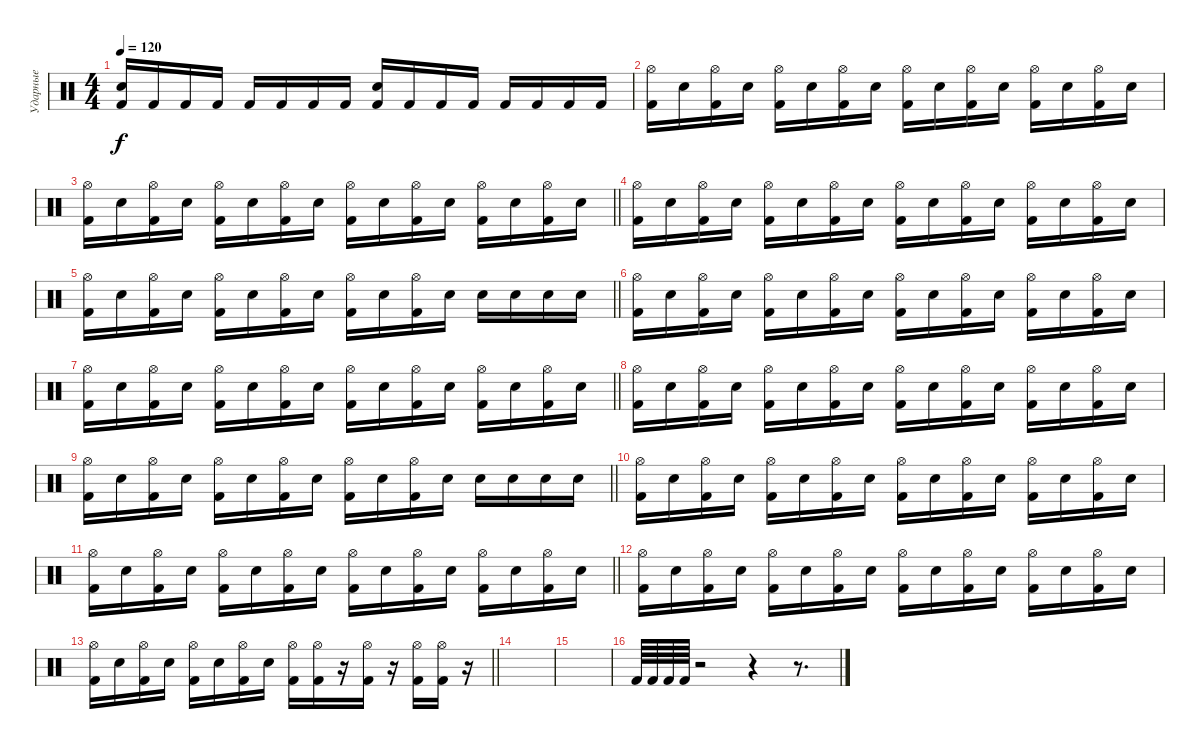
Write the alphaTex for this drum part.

\track ("Ударные" "Ударные") {instrument percussion}
\staff {score}
\articulation defaults
\ts (4 4)
\tempo 120
\clef neutral
\ks c
("Electric Snare (hit)" "Kick (hit) 2").16{dy f} "Kick (hit) 2".16 "Kick (hit) 2".16 "Kick (hit) 2".16 "Kick (hit) 2".16 "Kick (hit) 2".16 "Kick (hit) 2".16 "Kick (hit) 2".16 ("Electric Snare (hit)" "Kick (hit) 2").16 "Kick (hit) 2".16 "Kick (hit) 2".16 "Kick (hit) 2".16 "Kick (hit) 2".16 "Kick (hit) 2".16 "Kick (hit) 2".16 "Kick (hit) 2".16 |
("Hi-Hat (open)" "Kick (hit) 2").16 "Electric Snare (hit)".16 ("Hi-Hat (open)" "Kick (hit) 2").16 "Electric Snare (hit)".16 ("Hi-Hat (open)" "Kick (hit) 2").16 "Electric Snare (hit)".16 ("Hi-Hat (open)" "Kick (hit) 2").16 "Electric Snare (hit)".16 ("Hi-Hat (open)" "Kick (hit) 2").16 "Electric Snare (hit)".16 ("Hi-Hat (open)" "Kick (hit) 2").16 "Electric Snare (hit)".16 ("Hi-Hat (open)" "Kick (hit) 2").16 "Electric Snare (hit)".16 ("Hi-Hat (open)" "Kick (hit) 2").16 "Electric Snare (hit)".16 |
\barLineRight lightlight
("Hi-Hat (open)" "Kick (hit) 2").16 "Electric Snare (hit)".16 ("Hi-Hat (open)" "Kick (hit) 2").16 "Electric Snare (hit)".16 ("Hi-Hat (open)" "Kick (hit) 2").16 "Electric Snare (hit)".16 ("Hi-Hat (open)" "Kick (hit) 2").16 "Electric Snare (hit)".16 ("Hi-Hat (open)" "Kick (hit) 2").16 "Electric Snare (hit)".16 ("Hi-Hat (open)" "Kick (hit) 2").16 "Electric Snare (hit)".16 ("Hi-Hat (open)" "Kick (hit) 2").16 "Electric Snare (hit)".16 ("Hi-Hat (open)" "Kick (hit) 2").16 "Electric Snare (hit)".16 |
("Hi-Hat (open)" "Kick (hit) 2").16 "Electric Snare (hit)".16 ("Hi-Hat (open)" "Kick (hit) 2").16 "Electric Snare (hit)".16 ("Hi-Hat (open)" "Kick (hit) 2").16 "Electric Snare (hit)".16 ("Hi-Hat (open)" "Kick (hit) 2").16 "Electric Snare (hit)".16 ("Hi-Hat (open)" "Kick (hit) 2").16 "Electric Snare (hit)".16 ("Hi-Hat (open)" "Kick (hit) 2").16 "Electric Snare (hit)".16 ("Hi-Hat (open)" "Kick (hit) 2").16 "Electric Snare (hit)".16 ("Hi-Hat (open)" "Kick (hit) 2").16 "Electric Snare (hit)".16 |
\barLineRight lightlight
("Hi-Hat (open)" "Kick (hit) 2").16 "Electric Snare (hit)".16 ("Hi-Hat (open)" "Kick (hit) 2").16 "Electric Snare (hit)".16 ("Hi-Hat (open)" "Kick (hit) 2").16 "Electric Snare (hit)".16 ("Hi-Hat (open)" "Kick (hit) 2").16 "Electric Snare (hit)".16 ("Hi-Hat (open)" "Kick (hit) 2").16 "Electric Snare (hit)".16 ("Hi-Hat (open)" "Kick (hit) 2").16 "Electric Snare (hit)".16 "Electric Snare (hit)".16 "Electric Snare (hit)".16 "Electric Snare (hit)".16 "Electric Snare (hit)".16 |
("Hi-Hat (open)" "Kick (hit) 2").16 "Electric Snare (hit)".16 ("Hi-Hat (open)" "Kick (hit) 2").16 "Electric Snare (hit)".16 ("Hi-Hat (open)" "Kick (hit) 2").16 "Electric Snare (hit)".16 ("Hi-Hat (open)" "Kick (hit) 2").16 "Electric Snare (hit)".16 ("Hi-Hat (open)" "Kick (hit) 2").16 "Electric Snare (hit)".16 ("Hi-Hat (open)" "Kick (hit) 2").16 "Electric Snare (hit)".16 ("Hi-Hat (open)" "Kick (hit) 2").16 "Electric Snare (hit)".16 ("Hi-Hat (open)" "Kick (hit) 2").16 "Electric Snare (hit)".16 |
\barLineRight lightlight
("Hi-Hat (open)" "Kick (hit) 2").16 "Electric Snare (hit)".16 ("Hi-Hat (open)" "Kick (hit) 2").16 "Electric Snare (hit)".16 ("Hi-Hat (open)" "Kick (hit) 2").16 "Electric Snare (hit)".16 ("Hi-Hat (open)" "Kick (hit) 2").16 "Electric Snare (hit)".16 ("Hi-Hat (open)" "Kick (hit) 2").16 "Electric Snare (hit)".16 ("Hi-Hat (open)" "Kick (hit) 2").16 "Electric Snare (hit)".16 ("Hi-Hat (open)" "Kick (hit) 2").16 "Electric Snare (hit)".16 ("Hi-Hat (open)" "Kick (hit) 2").16 "Electric Snare (hit)".16 |
("Hi-Hat (open)" "Kick (hit) 2").16 "Electric Snare (hit)".16 ("Hi-Hat (open)" "Kick (hit) 2").16 "Electric Snare (hit)".16 ("Hi-Hat (open)" "Kick (hit) 2").16 "Electric Snare (hit)".16 ("Hi-Hat (open)" "Kick (hit) 2").16 "Electric Snare (hit)".16 ("Hi-Hat (open)" "Kick (hit) 2").16 "Electric Snare (hit)".16 ("Hi-Hat (open)" "Kick (hit) 2").16 "Electric Snare (hit)".16 ("Hi-Hat (open)" "Kick (hit) 2").16 "Electric Snare (hit)".16 ("Hi-Hat (open)" "Kick (hit) 2").16 "Electric Snare (hit)".16 |
\barLineRight lightlight
("Hi-Hat (open)" "Kick (hit) 2").16 "Electric Snare (hit)".16 ("Hi-Hat (open)" "Kick (hit) 2").16 "Electric Snare (hit)".16 ("Hi-Hat (open)" "Kick (hit) 2").16 "Electric Snare (hit)".16 ("Hi-Hat (open)" "Kick (hit) 2").16 "Electric Snare (hit)".16 ("Hi-Hat (open)" "Kick (hit) 2").16 "Electric Snare (hit)".16 ("Hi-Hat (open)" "Kick (hit) 2").16 "Electric Snare (hit)".16 "Electric Snare (hit)".16 "Electric Snare (hit)".16 "Electric Snare (hit)".16 "Electric Snare (hit)".16 |
("Hi-Hat (open)" "Kick (hit) 2").16 "Electric Snare (hit)".16 ("Hi-Hat (open)" "Kick (hit) 2").16 "Electric Snare (hit)".16 ("Hi-Hat (open)" "Kick (hit) 2").16 "Electric Snare (hit)".16 ("Hi-Hat (open)" "Kick (hit) 2").16 "Electric Snare (hit)".16 ("Hi-Hat (open)" "Kick (hit) 2").16 "Electric Snare (hit)".16 ("Hi-Hat (open)" "Kick (hit) 2").16 "Electric Snare (hit)".16 ("Hi-Hat (open)" "Kick (hit) 2").16 "Electric Snare (hit)".16 ("Hi-Hat (open)" "Kick (hit) 2").16 "Electric Snare (hit)".16 |
\barLineRight lightlight
("Hi-Hat (open)" "Kick (hit) 2").16 "Electric Snare (hit)".16 ("Hi-Hat (open)" "Kick (hit) 2").16 "Electric Snare (hit)".16 ("Hi-Hat (open)" "Kick (hit) 2").16 "Electric Snare (hit)".16 ("Hi-Hat (open)" "Kick (hit) 2").16 "Electric Snare (hit)".16 ("Hi-Hat (open)" "Kick (hit) 2").16 "Electric Snare (hit)".16 ("Hi-Hat (open)" "Kick (hit) 2").16 "Electric Snare (hit)".16 ("Hi-Hat (open)" "Kick (hit) 2").16 "Electric Snare (hit)".16 ("Hi-Hat (open)" "Kick (hit) 2").16 "Electric Snare (hit)".16 |
("Hi-Hat (open)" "Kick (hit) 2").16 "Electric Snare (hit)".16 ("Hi-Hat (open)" "Kick (hit) 2").16 "Electric Snare (hit)".16 ("Hi-Hat (open)" "Kick (hit) 2").16 "Electric Snare (hit)".16 ("Hi-Hat (open)" "Kick (hit) 2").16 "Electric Snare (hit)".16 ("Hi-Hat (open)" "Kick (hit) 2").16 "Electric Snare (hit)".16 ("Hi-Hat (open)" "Kick (hit) 2").16 "Electric Snare (hit)".16 ("Hi-Hat (open)" "Kick (hit) 2").16 "Electric Snare (hit)".16 ("Hi-Hat (open)" "Kick (hit) 2").16 "Electric Snare (hit)".16 |
\barLineRight lightlight
("Hi-Hat (open)" "Kick (hit) 2").16 "Electric Snare (hit)".16 ("Hi-Hat (open)" "Kick (hit) 2").16 "Electric Snare (hit)".16 ("Hi-Hat (open)" "Kick (hit) 2").16 "Electric Snare (hit)".16 ("Hi-Hat (open)" "Kick (hit) 2").16 "Electric Snare (hit)".16 ("Hi-Hat (open)" "Kick (hit) 2").16 ("Hi-Hat (open)" "Kick (hit) 2").16 r.16 ("Hi-Hat (open)" "Kick (hit) 2").16 r.16 ("Hi-Hat (open)" "Kick (hit) 2").16 ("Hi-Hat (open)" "Kick (hit) 2").16 r.16 |
|
|
"Kick (hit) 2".64 "Kick (hit) 2".64 "Kick (hit) 2".64 "Kick (hit) 2".64 r.2 r.4 r.8{d}
